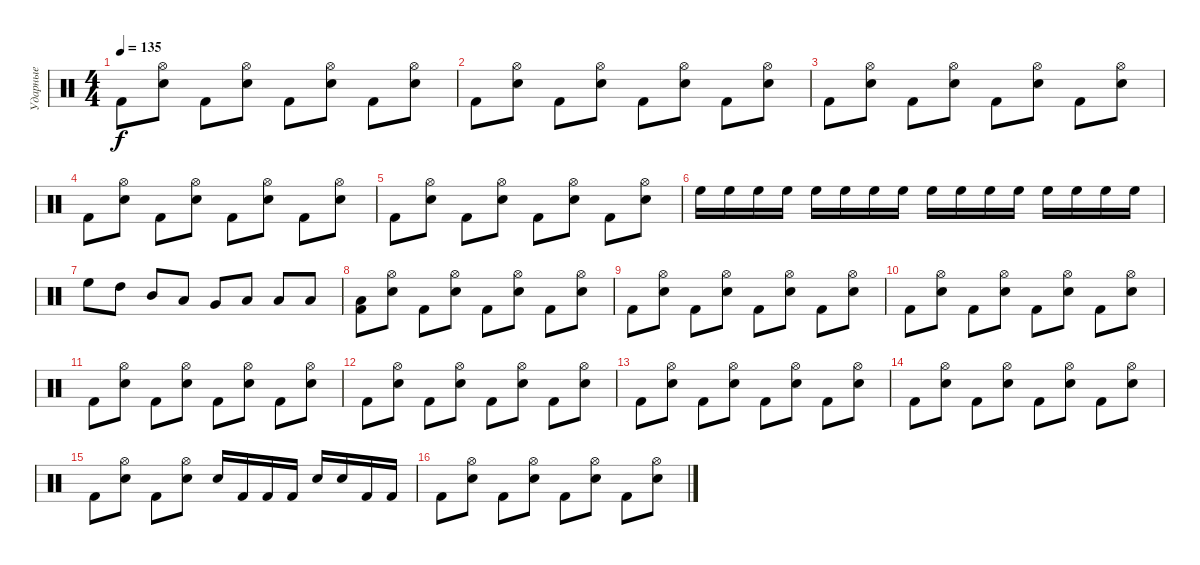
\track ("Ударные" "Ударные") {instrument percussion}
\staff {score}
\articulation defaults
\ts (4 4)
\tempo 135
\clef neutral
\ks c "Kick (hit) 2".8{dy f}
("Snare (hit) 2" "Hi-Hat (open)").8 "Kick (hit) 2".8 ("Snare (hit) 2" "Hi-Hat (open)").8 "Kick (hit) 2".8 ("Snare (hit) 2" "Hi-Hat (open)").8 "Kick (hit) 2".8 ("Snare (hit) 2" "Hi-Hat (open)").8 |
"Kick (hit) 2".8 ("Snare (hit) 2" "Hi-Hat (open)").8 "Kick (hit) 2".8 ("Snare (hit) 2" "Hi-Hat (open)").8 "Kick (hit) 2".8 ("Snare (hit) 2" "Hi-Hat (open)").8 "Kick (hit) 2".8 ("Snare (hit) 2" "Hi-Hat (open)").8 |
"Kick (hit) 2".8 ("Snare (hit) 2" "Hi-Hat (open)").8 "Kick (hit) 2".8 ("Snare (hit) 2" "Hi-Hat (open)").8 "Kick (hit) 2".8 ("Snare (hit) 2" "Hi-Hat (open)").8 "Kick (hit) 2".8 ("Snare (hit) 2" "Hi-Hat (open)").8 |
"Kick (hit) 2".8 ("Snare (hit) 2" "Hi-Hat (open)").8 "Kick (hit) 2".8 ("Snare (hit) 2" "Hi-Hat (open)").8 "Kick (hit) 2".8 ("Snare (hit) 2" "Hi-Hat (open)").8 "Kick (hit) 2".8 ("Snare (hit) 2" "Hi-Hat (open)").8 |
"Kick (hit) 2".8 ("Snare (hit) 2" "Hi-Hat (open)").8 "Kick (hit) 2".8 ("Snare (hit) 2" "Hi-Hat (open)").8 "Kick (hit) 2".8 ("Snare (hit) 2" "Hi-Hat (open)").8 "Kick (hit) 2".8 ("Snare (hit) 2" "Hi-Hat (open)").8 |
"High Floor Tom (hit)".16 "High Floor Tom (hit)".16 "High Floor Tom (hit)".16 "High Floor Tom (hit)".16 "High Floor Tom (hit)".16 "High Floor Tom (hit)".16 "High Floor Tom (hit)".16 "High Floor Tom (hit)".16 "High Floor Tom (hit)".16 "High Floor Tom (hit)".16 "High Floor Tom (hit)".16 "High Floor Tom (hit)".16 "High Floor Tom (hit)".16 "High Floor Tom (hit)".16 "High Floor Tom (hit)".16 "High Floor Tom (hit)".16 |
"High Floor Tom (hit)".8 "High Tom (hit)".8 "Mid Tom (hit)".8 "Low Tom (hit)".8 "Very Low Tom (hit)".8 "Low Floor Tom (hit)".8 "Low Floor Tom (hit)".8 "Low Floor Tom (hit)".8 |
("Kick (hit) 2" "Low Tom (hit)").8 ("Snare (hit) 2" "Hi-Hat (open)").8 "Kick (hit) 2".8 ("Snare (hit) 2" "Hi-Hat (open)").8 "Kick (hit) 2".8 ("Snare (hit) 2" "Hi-Hat (open)").8 "Kick (hit) 2".8 ("Snare (hit) 2" "Hi-Hat (open)").8 |
"Kick (hit) 2".8 ("Snare (hit) 2" "Hi-Hat (open)").8 "Kick (hit) 2".8 ("Snare (hit) 2" "Hi-Hat (open)").8 "Kick (hit) 2".8 ("Snare (hit) 2" "Hi-Hat (open)").8 "Kick (hit) 2".8 ("Snare (hit) 2" "Hi-Hat (open)").8 |
"Kick (hit) 2".8 ("Snare (hit) 2" "Hi-Hat (open)").8 "Kick (hit) 2".8 ("Snare (hit) 2" "Hi-Hat (open)").8 "Kick (hit) 2".8 ("Snare (hit) 2" "Hi-Hat (open)").8 "Kick (hit) 2".8 ("Snare (hit) 2" "Hi-Hat (open)").8 |
"Kick (hit) 2".8 ("Snare (hit) 2" "Hi-Hat (open)").8 "Kick (hit) 2".8 ("Snare (hit) 2" "Hi-Hat (open)").8 "Kick (hit) 2".8 ("Snare (hit) 2" "Hi-Hat (open)").8 "Kick (hit) 2".8 ("Snare (hit) 2" "Hi-Hat (open)").8 |
"Kick (hit) 2".8 ("Snare (hit) 2" "Hi-Hat (open)").8 "Kick (hit) 2".8 ("Snare (hit) 2" "Hi-Hat (open)").8 "Kick (hit) 2".8 ("Snare (hit) 2" "Hi-Hat (open)").8 "Kick (hit) 2".8 ("Snare (hit) 2" "Hi-Hat (open)").8 |
"Kick (hit) 2".8 ("Snare (hit) 2" "Hi-Hat (open)").8 "Kick (hit) 2".8 ("Snare (hit) 2" "Hi-Hat (open)").8 "Kick (hit) 2".8 ("Snare (hit) 2" "Hi-Hat (open)").8 "Kick (hit) 2".8 ("Snare (hit) 2" "Hi-Hat (open)").8 |
"Kick (hit) 2".8 ("Snare (hit) 2" "Hi-Hat (open)").8 "Kick (hit) 2".8 ("Snare (hit) 2" "Hi-Hat (open)").8 "Kick (hit) 2".8 ("Snare (hit) 2" "Hi-Hat (open)").8 "Kick (hit) 2".8 ("Snare (hit) 2" "Hi-Hat (open)").8 |
"Kick (hit) 2".8 ("Snare (hit) 2" "Hi-Hat (open)").8 "Kick (hit) 2".8 ("Snare (hit) 2" "Hi-Hat (open)").8 "Snare (hit) 2".16 "Kick (hit) 2".16 "Kick (hit) 2".16 "Kick (hit) 2".16 "Snare (hit) 2".16 "Snare (hit) 2".16 "Kick (hit) 2".16 "Kick (hit) 2".16 |
"Kick (hit) 2".8 ("Snare (hit) 2" "Hi-Hat (open)").8 "Kick (hit) 2".8 ("Snare (hit) 2" "Hi-Hat (open)").8 "Kick (hit) 2".8 ("Snare (hit) 2" "Hi-Hat (open)").8 "Kick (hit) 2".8 ("Snare (hit) 2" "Hi-Hat (open)").8
